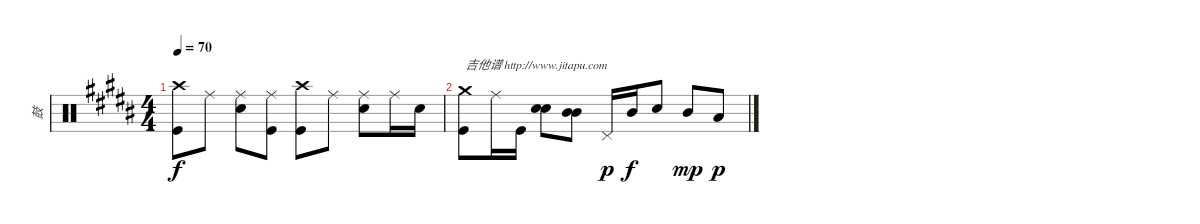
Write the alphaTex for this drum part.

\track ("鼓" "鼓") {instrument percussion}
\staff {score}
\articulation defaults
\ts (4 4)
\tempo 70
\clef neutral
\ks b
("Crash high (hit)" "Kick (hit)").8{dy f} "Ride (middle)".8 ("Ride (middle)" "Electric Snare (hit)").8 ("Ride (middle)" "Kick (hit)").8 ("Crash high (hit)" "Kick (hit)").8 "Ride (middle)".8 ("Ride (middle)" "Electric Snare (hit)").8 "Ride (middle)".16 "Electric Snare (hit)".16 |
("Crash medium (hit)" "Kick (hit)").8{txt "吉他谱 http://www.jitapu.com"} "Ride (middle)".16 "Kick (hit)".16 ("Electric Snare (hit)" "Electric Snare (hit)").8{bd 120} ("Mid Tom (hit)" "Mid Tom (hit)").8 "Pedal Hi-Hat (hit)".16{dy p} "Mid Tom (hit)".16{dy f} "Electric Snare (hit)".8 "Mid Tom (hit)".8{dy mp} "Low Tom (hit)".8{dy p}
